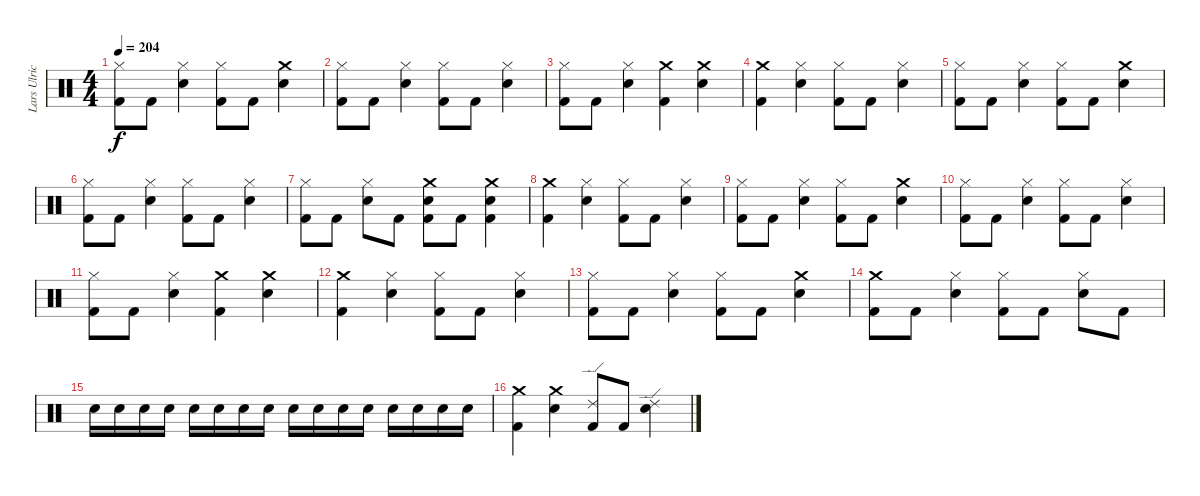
\track ("Lars Ulrich (Drums)" "Lars Ulric") {instrument percussion}
\staff {score}
\articulation defaults
\ts (4 4)
\tempo 204
\clef neutral
\ks c
("Hi-Hat (closed)" "Kick (hit) 2").8{dy f} "Kick (hit) 2".8 ("Snare (hit) 2" "Hi-Hat (closed)").4 ("Hi-Hat (closed)" "Kick (hit) 2").8 "Kick (hit) 2".8 ("Crash medium (hit)" "Snare (hit) 2").4 |
("Hi-Hat (closed)" "Kick (hit) 2").8 "Kick (hit) 2".8 ("Snare (hit) 2" "Hi-Hat (closed)").4 ("Hi-Hat (closed)" "Kick (hit) 2").8 "Kick (hit) 2".8 ("Snare (hit) 2" "Hi-Hat (closed)").4 |
("Hi-Hat (closed)" "Kick (hit) 2").8 "Kick (hit) 2".8 ("Snare (hit) 2" "Hi-Hat (closed)").4 ("Crash medium (hit)" "Kick (hit) 2").4 ("Crash medium (hit)" "Snare (hit) 2").4 |
("Kick (hit) 2" "Crash medium (hit)").4 ("Hi-Hat (closed)" "Snare (hit) 2").4 ("Hi-Hat (closed)" "Kick (hit) 2").8 "Kick (hit) 2".8 ("Snare (hit) 2" "Hi-Hat (closed)").4 |
("Hi-Hat (closed)" "Kick (hit) 2").8 "Kick (hit) 2".8 ("Snare (hit) 2" "Hi-Hat (closed)").4 ("Hi-Hat (closed)" "Kick (hit) 2").8 "Kick (hit) 2".8 ("Crash medium (hit)" "Snare (hit) 2").4 |
("Hi-Hat (closed)" "Kick (hit) 2").8 "Kick (hit) 2".8 ("Snare (hit) 2" "Hi-Hat (closed)").4 ("Hi-Hat (closed)" "Kick (hit) 2").8 "Kick (hit) 2".8 ("Snare (hit) 2" "Hi-Hat (closed)").4 |
("Hi-Hat (closed)" "Kick (hit) 2").8 "Kick (hit) 2".8 ("Snare (hit) 2" "Hi-Hat (closed)").8 "Kick (hit) 2".8 ("Snare (hit) 2" "Crash medium (hit)" "Kick (hit) 2").8 "Kick (hit) 2".8 ("Kick (hit) 2" "Crash medium (hit)" "Snare (hit) 2").4 |
("Kick (hit) 2" "Crash medium (hit)").4 ("Hi-Hat (closed)" "Snare (hit) 2").4 ("Hi-Hat (closed)" "Kick (hit) 2").8 "Kick (hit) 2".8 ("Snare (hit) 2" "Hi-Hat (closed)").4 |
("Hi-Hat (closed)" "Kick (hit) 2").8 "Kick (hit) 2".8 ("Snare (hit) 2" "Hi-Hat (closed)").4 ("Hi-Hat (closed)" "Kick (hit) 2").8 "Kick (hit) 2".8 ("Crash medium (hit)" "Snare (hit) 2").4 |
("Hi-Hat (closed)" "Kick (hit) 2").8 "Kick (hit) 2".8 ("Snare (hit) 2" "Hi-Hat (closed)").4 ("Hi-Hat (closed)" "Kick (hit) 2").8 "Kick (hit) 2".8 ("Snare (hit) 2" "Hi-Hat (closed)").4 |
("Hi-Hat (closed)" "Kick (hit) 2").8 "Kick (hit) 2".8 ("Snare (hit) 2" "Hi-Hat (closed)").4 ("Crash medium (hit)" "Kick (hit) 2").4 ("Crash medium (hit)" "Snare (hit) 2").4 |
("Kick (hit) 2" "Crash medium (hit)").4 ("Hi-Hat (closed)" "Snare (hit) 2").4 ("Hi-Hat (closed)" "Kick (hit) 2").8 "Kick (hit) 2".8 ("Snare (hit) 2" "Hi-Hat (closed)").4 |
("Hi-Hat (closed)" "Kick (hit) 2").8 "Kick (hit) 2".8 ("Snare (hit) 2" "Hi-Hat (closed)").4 ("Hi-Hat (closed)" "Kick (hit) 2").8 "Kick (hit) 2".8 ("Crash medium (hit)" "Snare (hit) 2").4 |
("Crash medium (hit)" "Kick (hit) 2").8 "Kick (hit) 2".8 ("Snare (hit) 2" "Hi-Hat (closed)").4 ("Hi-Hat (closed)" "Kick (hit) 2").8 "Kick (hit) 2".8 ("Snare (hit) 2" "Hi-Hat (closed)").8 "Kick (hit) 2".8 |
"Snare (hit) 2".16 "Snare (hit) 2".16 "Snare (hit) 2".16 "Snare (hit) 2".16 "Snare (hit) 2".16 "Snare (hit) 2".16 "Snare (hit) 2".16 "Snare (hit) 2".16 "Snare (hit) 2".16 "Snare (hit) 2".16 "Snare (hit) 2".16 "Snare (hit) 2".16 "Snare (hit) 2".16 "Snare (hit) 2".16 "Snare (hit) 2".16 "Snare (hit) 2".16 |
("Kick (hit) 2" "Crash medium (hit)").4 ("Snare (hit) 2" "Crash medium (hit)").4 ("Kick (hit) 2" "Ride (edge) 2").8 "Kick (hit) 2".8 ("Snare (hit) 2" "Ride (edge) 2").4
